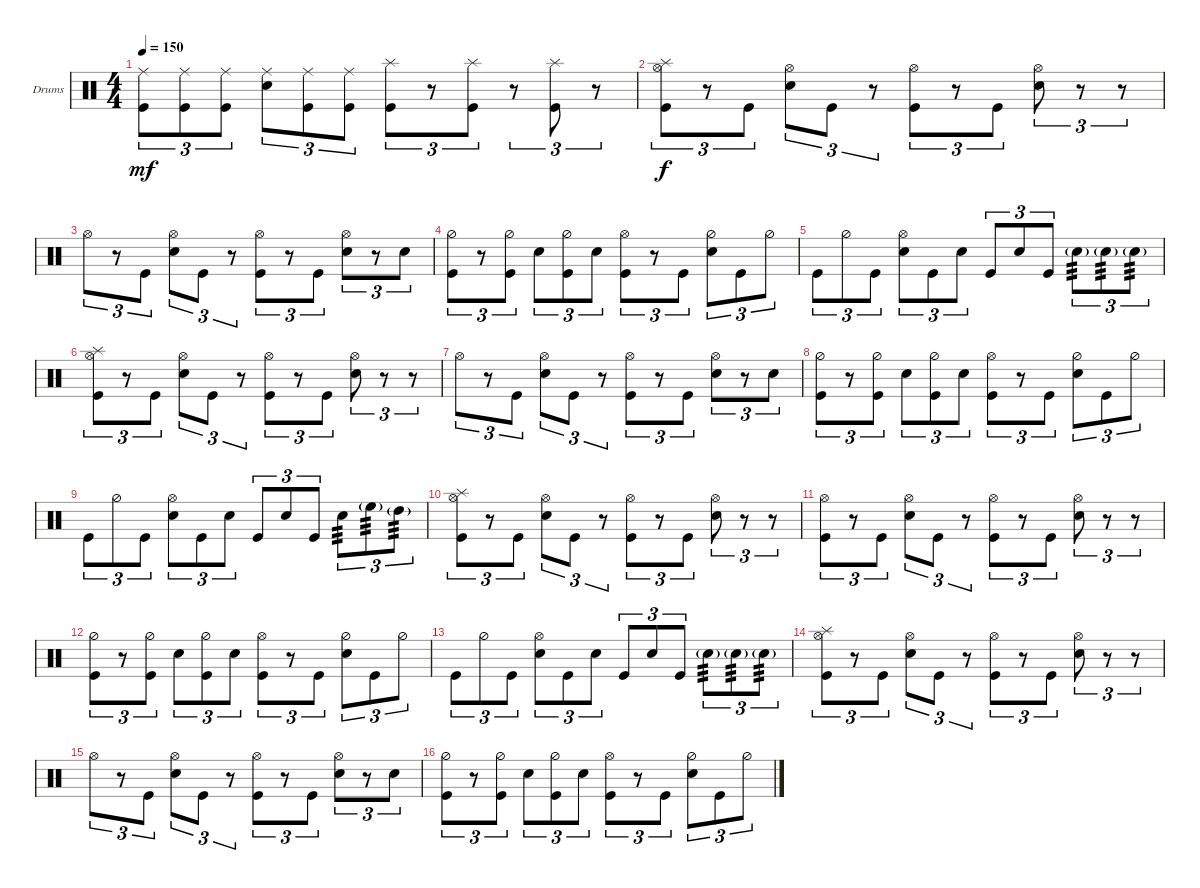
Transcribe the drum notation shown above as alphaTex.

\bracketExtendMode groupsimilarinstruments
\firstSystemTrackNameOrientation horizontal
\otherSystemsTrackNameOrientation horizontal
\track ("Drumkit" "Drums") {instrument percussion}
\staff {score}
\articulation defaults
\ts (4 4)
\tempo 150
\clef neutral
\ks c
("Kick (hit)" "Ride (middle)").8{tu (3 2) dy mf} ("Kick (hit)" "Ride (middle)").8{tu (3 2)} ("Kick (hit)" "Ride (middle)").8{tu (3 2)} ("Snare (hit) 2" "Ride (middle)").8{tu (3 2)} ("Kick (hit)" "Ride (middle)").8{tu (3 2)} ("Kick (hit)" "Ride (middle)").8{tu (3 2)} ("Kick (hit)" "Splash (hit)").8{tu (3 2)} r.8{tu (3 2)} ("Kick (hit)" "Splash (hit)").8{tu (3 2)} r.8{tu (3 2)} ("Kick (hit)" "Splash (hit)").8{tu (3 2)} r.8{tu (3 2)} |
("Kick (hit)" "Hi-Hat (open)" "Splash (hit)").8{tu (3 2) dy f} r.8{tu (3 2)} "Kick (hit)".8{tu (3 2)} ("Snare (hit) 2" "Hi-Hat (open)").8{tu (3 2)} "Kick (hit)".8{tu (3 2)} r.8{tu (3 2)} ("Kick (hit)" "Hi-Hat (open)").8{tu (3 2)} r.8{tu (3 2)} "Kick (hit)".8{tu (3 2)} ("Snare (hit) 2" "Hi-Hat (open)").8{tu (3 2)} r.8{tu (3 2)} r.8{tu (3 2)} |
"Hi-Hat (open)".8{tu (3 2)} r.8{tu (3 2)} "Kick (hit)".8{tu (3 2)} ("Snare (hit) 2" "Hi-Hat (open)").8{tu (3 2)} "Kick (hit)".8{tu (3 2)} r.8{tu (3 2)} ("Kick (hit)" "Hi-Hat (open)").8{tu (3 2)} r.8{tu (3 2)} "Kick (hit)".8{tu (3 2)} ("Snare (hit) 2" "Hi-Hat (open)").8{tu (3 2)} r.8{tu (3 2)} "Snare (hit) 2".8{tu (3 2)} |
("Hi-Hat (half)" "Kick (hit)").8{tu (3 2)} r.8{tu (3 2)} ("Hi-Hat (half)" "Kick (hit)").8{tu (3 2)} "Snare (hit) 2".8{tu (3 2)} ("Hi-Hat (half)" "Kick (hit)").8{tu (3 2)} "Snare (hit) 2".8{tu (3 2)} ("Hi-Hat (open)" "Kick (hit)").8{tu (3 2)} r.8{tu (3 2)} "Kick (hit)".8{tu (3 2)} ("Hi-Hat (half)" "Snare (hit) 2").8{tu (3 2)} "Kick (hit)".8{tu (3 2)} "Hi-Hat (half)".8{tu (3 2)} |
"Kick (hit)".8{tu (3 2)} "Hi-Hat (half)".8{tu (3 2)} "Kick (hit)".8{tu (3 2)} ("Hi-Hat (open)" "Snare (hit) 2").8{tu (3 2)} "Kick (hit)".8{tu (3 2)} "Snare (hit) 2".8{tu (3 2)} "Kick (hit)".8{tu (3 2)} "Snare (hit) 2".8{tu (3 2)} "Kick (hit)".8{tu (3 2)} "Snare (hit) 2"{g}.8{tu (3 2) tp 3} "Snare (hit) 2"{g}.8{tu (3 2) tp 3} "Snare (hit) 2"{g}.8{tu (3 2) tp 3} |
("Kick (hit)" "Hi-Hat (open)" "Splash (hit)").8{tu (3 2)} r.8{tu (3 2)} "Kick (hit)".8{tu (3 2)} ("Snare (hit) 2" "Hi-Hat (open)").8{tu (3 2)} "Kick (hit)".8{tu (3 2)} r.8{tu (3 2)} ("Kick (hit)" "Hi-Hat (open)").8{tu (3 2)} r.8{tu (3 2)} "Kick (hit)".8{tu (3 2)} ("Snare (hit) 2" "Hi-Hat (open)").8{tu (3 2)} r.8{tu (3 2)} r.8{tu (3 2)} |
"Hi-Hat (open)".8{tu (3 2)} r.8{tu (3 2)} "Kick (hit)".8{tu (3 2)} ("Snare (hit) 2" "Hi-Hat (open)").8{tu (3 2)} "Kick (hit)".8{tu (3 2)} r.8{tu (3 2)} ("Kick (hit)" "Hi-Hat (open)").8{tu (3 2)} r.8{tu (3 2)} "Kick (hit)".8{tu (3 2)} ("Snare (hit) 2" "Hi-Hat (open)").8{tu (3 2)} r.8{tu (3 2)} "Snare (hit) 2".8{tu (3 2)} |
("Hi-Hat (half)" "Kick (hit)").8{tu (3 2)} r.8{tu (3 2)} ("Hi-Hat (half)" "Kick (hit)").8{tu (3 2)} "Snare (hit) 2".8{tu (3 2)} ("Hi-Hat (half)" "Kick (hit)").8{tu (3 2)} "Snare (hit) 2".8{tu (3 2)} ("Hi-Hat (open)" "Kick (hit)").8{tu (3 2)} r.8{tu (3 2)} "Kick (hit)".8{tu (3 2)} ("Hi-Hat (half)" "Snare (hit) 2").8{tu (3 2)} "Kick (hit)".8{tu (3 2)} "Hi-Hat (half)".8{tu (3 2)} |
"Kick (hit)".8{tu (3 2)} "Hi-Hat (half)".8{tu (3 2)} "Kick (hit)".8{tu (3 2)} ("Hi-Hat (open)" "Snare (hit) 2").8{tu (3 2)} "Kick (hit)".8{tu (3 2)} "Snare (hit) 2".8{tu (3 2)} "Kick (hit)".8{tu (3 2)} "Snare (hit) 2".8{tu (3 2)} "Kick (hit)".8{tu (3 2)} "Snare (hit) 2".8{tu (3 2) tp 3} "High Floor Tom (hit)"{g}.8{tu (3 2) tp 3} "High Tom (hit)"{g}.8{tu (3 2) tp 3} |
("Kick (hit)" "Hi-Hat (open)" "Splash (hit)").8{tu (3 2)} r.8{tu (3 2)} "Kick (hit)".8{tu (3 2)} ("Snare (hit) 2" "Hi-Hat (open)").8{tu (3 2)} "Kick (hit)".8{tu (3 2)} r.8{tu (3 2)} ("Kick (hit)" "Hi-Hat (open)").8{tu (3 2)} r.8{tu (3 2)} "Kick (hit)".8{tu (3 2)} ("Snare (hit) 2" "Hi-Hat (open)").8{tu (3 2)} r.8{tu (3 2)} r.8{tu (3 2)} |
("Kick (hit)" "Hi-Hat (open)").8{tu (3 2)} r.8{tu (3 2)} "Kick (hit)".8{tu (3 2)} ("Snare (hit) 2" "Hi-Hat (open)").8{tu (3 2)} "Kick (hit)".8{tu (3 2)} r.8{tu (3 2)} ("Kick (hit)" "Hi-Hat (open)").8{tu (3 2)} r.8{tu (3 2)} "Kick (hit)".8{tu (3 2)} ("Snare (hit) 2" "Hi-Hat (open)").8{tu (3 2)} r.8{tu (3 2)} r.8{tu (3 2)} |
("Hi-Hat (half)" "Kick (hit)").8{tu (3 2)} r.8{tu (3 2)} ("Hi-Hat (half)" "Kick (hit)").8{tu (3 2)} "Snare (hit) 2".8{tu (3 2)} ("Hi-Hat (half)" "Kick (hit)").8{tu (3 2)} "Snare (hit) 2".8{tu (3 2)} ("Hi-Hat (open)" "Kick (hit)").8{tu (3 2)} r.8{tu (3 2)} "Kick (hit)".8{tu (3 2)} ("Hi-Hat (half)" "Snare (hit) 2").8{tu (3 2)} "Kick (hit)".8{tu (3 2)} "Hi-Hat (half)".8{tu (3 2)} |
"Kick (hit)".8{tu (3 2)} "Hi-Hat (half)".8{tu (3 2)} "Kick (hit)".8{tu (3 2)} ("Hi-Hat (open)" "Snare (hit) 2").8{tu (3 2)} "Kick (hit)".8{tu (3 2)} "Snare (hit) 2".8{tu (3 2)} "Kick (hit)".8{tu (3 2)} "Snare (hit) 2".8{tu (3 2)} "Kick (hit)".8{tu (3 2)} "Snare (hit) 2"{g}.8{tu (3 2) tp 3} "Snare (hit) 2"{g}.8{tu (3 2) tp 3} "Snare (hit) 2"{g}.8{tu (3 2) tp 3} |
("Kick (hit)" "Hi-Hat (open)" "Splash (hit)").8{tu (3 2)} r.8{tu (3 2)} "Kick (hit)".8{tu (3 2)} ("Snare (hit) 2" "Hi-Hat (open)").8{tu (3 2)} "Kick (hit)".8{tu (3 2)} r.8{tu (3 2)} ("Kick (hit)" "Hi-Hat (open)").8{tu (3 2)} r.8{tu (3 2)} "Kick (hit)".8{tu (3 2)} ("Snare (hit) 2" "Hi-Hat (open)").8{tu (3 2)} r.8{tu (3 2)} r.8{tu (3 2)} |
"Hi-Hat (open)".8{tu (3 2)} r.8{tu (3 2)} "Kick (hit)".8{tu (3 2)} ("Snare (hit) 2" "Hi-Hat (open)").8{tu (3 2)} "Kick (hit)".8{tu (3 2)} r.8{tu (3 2)} ("Kick (hit)" "Hi-Hat (open)").8{tu (3 2)} r.8{tu (3 2)} "Kick (hit)".8{tu (3 2)} ("Snare (hit) 2" "Hi-Hat (open)").8{tu (3 2)} r.8{tu (3 2)} "Snare (hit) 2".8{tu (3 2)} |
("Hi-Hat (half)" "Kick (hit)").8{tu (3 2)} r.8{tu (3 2)} ("Hi-Hat (half)" "Kick (hit)").8{tu (3 2)} "Snare (hit) 2".8{tu (3 2)} ("Hi-Hat (half)" "Kick (hit)").8{tu (3 2)} "Snare (hit) 2".8{tu (3 2)} ("Hi-Hat (open)" "Kick (hit)").8{tu (3 2)} r.8{tu (3 2)} "Kick (hit)".8{tu (3 2)} ("Hi-Hat (half)" "Snare (hit) 2").8{tu (3 2)} "Kick (hit)".8{tu (3 2)} "Hi-Hat (half)".8{tu (3 2)}
